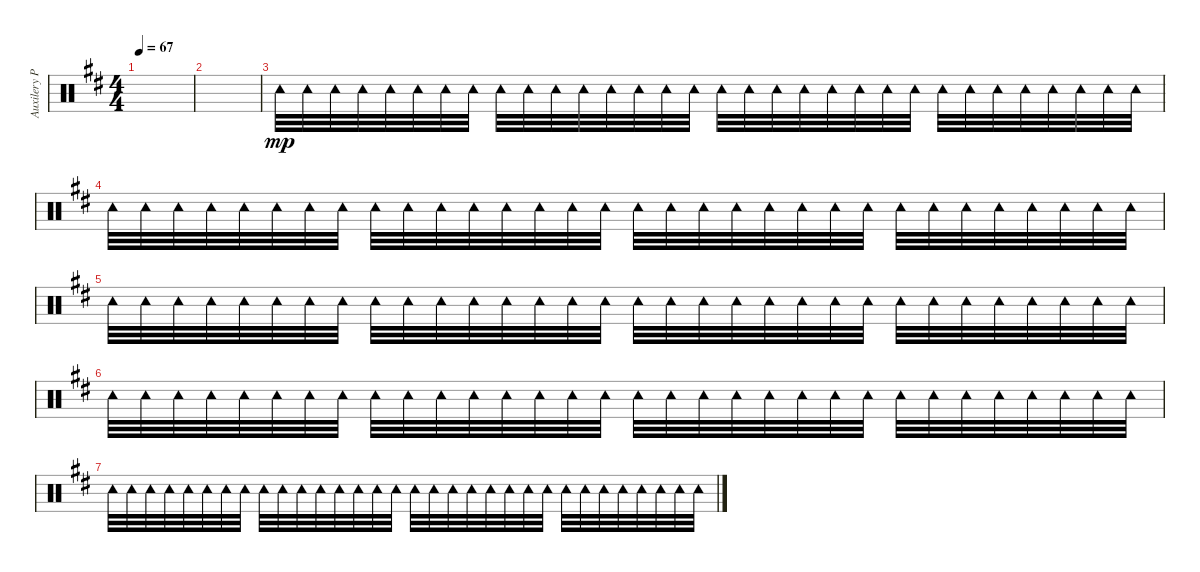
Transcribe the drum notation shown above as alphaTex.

\track ("Auxilery Percussion" "Auxilery P") {instrument percussion}
\staff {score}
\articulation defaults
\ts (4 4)
\tempo 67
\clef neutral
\ks bminor
|
|
"Tambourine (hit)".32{dy mp} "Tambourine (hit)".32 "Tambourine (hit)".32 "Tambourine (hit)".32 "Tambourine (hit)".32 "Tambourine (hit)".32 "Tambourine (hit)".32 "Tambourine (hit)".32 "Tambourine (hit)".32 "Tambourine (hit)".32 "Tambourine (hit)".32 "Tambourine (hit)".32 "Tambourine (hit)".32 "Tambourine (hit)".32 "Tambourine (hit)".32 "Tambourine (hit)".32 "Tambourine (hit)".32 "Tambourine (hit)".32 "Tambourine (hit)".32 "Tambourine (hit)".32 "Tambourine (hit)".32 "Tambourine (hit)".32 "Tambourine (hit)".32 "Tambourine (hit)".32 "Tambourine (hit)".32 "Tambourine (hit)".32 "Tambourine (hit)".32 "Tambourine (hit)".32 "Tambourine (hit)".32 "Tambourine (hit)".32 "Tambourine (hit)".32 "Tambourine (hit)".32 |
"Tambourine (hit)".32 "Tambourine (hit)".32 "Tambourine (hit)".32 "Tambourine (hit)".32 "Tambourine (hit)".32 "Tambourine (hit)".32 "Tambourine (hit)".32 "Tambourine (hit)".32 "Tambourine (hit)".32 "Tambourine (hit)".32 "Tambourine (hit)".32 "Tambourine (hit)".32 "Tambourine (hit)".32 "Tambourine (hit)".32 "Tambourine (hit)".32 "Tambourine (hit)".32 "Tambourine (hit)".32 "Tambourine (hit)".32 "Tambourine (hit)".32 "Tambourine (hit)".32 "Tambourine (hit)".32 "Tambourine (hit)".32 "Tambourine (hit)".32 "Tambourine (hit)".32 "Tambourine (hit)".32 "Tambourine (hit)".32 "Tambourine (hit)".32 "Tambourine (hit)".32 "Tambourine (hit)".32 "Tambourine (hit)".32 "Tambourine (hit)".32 "Tambourine (hit)".32 |
"Tambourine (hit)".32 "Tambourine (hit)".32 "Tambourine (hit)".32 "Tambourine (hit)".32 "Tambourine (hit)".32 "Tambourine (hit)".32 "Tambourine (hit)".32 "Tambourine (hit)".32 "Tambourine (hit)".32 "Tambourine (hit)".32 "Tambourine (hit)".32 "Tambourine (hit)".32 "Tambourine (hit)".32 "Tambourine (hit)".32 "Tambourine (hit)".32 "Tambourine (hit)".32 "Tambourine (hit)".32 "Tambourine (hit)".32 "Tambourine (hit)".32 "Tambourine (hit)".32 "Tambourine (hit)".32 "Tambourine (hit)".32 "Tambourine (hit)".32 "Tambourine (hit)".32 "Tambourine (hit)".32 "Tambourine (hit)".32 "Tambourine (hit)".32 "Tambourine (hit)".32 "Tambourine (hit)".32 "Tambourine (hit)".32 "Tambourine (hit)".32 "Tambourine (hit)".32 |
"Tambourine (hit)".32 "Tambourine (hit)".32 "Tambourine (hit)".32 "Tambourine (hit)".32 "Tambourine (hit)".32 "Tambourine (hit)".32 "Tambourine (hit)".32 "Tambourine (hit)".32 "Tambourine (hit)".32 "Tambourine (hit)".32 "Tambourine (hit)".32 "Tambourine (hit)".32 "Tambourine (hit)".32 "Tambourine (hit)".32 "Tambourine (hit)".32 "Tambourine (hit)".32 "Tambourine (hit)".32 "Tambourine (hit)".32 "Tambourine (hit)".32 "Tambourine (hit)".32 "Tambourine (hit)".32 "Tambourine (hit)".32 "Tambourine (hit)".32 "Tambourine (hit)".32 "Tambourine (hit)".32 "Tambourine (hit)".32 "Tambourine (hit)".32 "Tambourine (hit)".32 "Tambourine (hit)".32 "Tambourine (hit)".32 "Tambourine (hit)".32 "Tambourine (hit)".32 |
"Tambourine (hit)".32 "Tambourine (hit)".32 "Tambourine (hit)".32 "Tambourine (hit)".32 "Tambourine (hit)".32 "Tambourine (hit)".32 "Tambourine (hit)".32 "Tambourine (hit)".32 "Tambourine (hit)".32 "Tambourine (hit)".32 "Tambourine (hit)".32 "Tambourine (hit)".32 "Tambourine (hit)".32 "Tambourine (hit)".32 "Tambourine (hit)".32 "Tambourine (hit)".32 "Tambourine (hit)".32 "Tambourine (hit)".32 "Tambourine (hit)".32 "Tambourine (hit)".32 "Tambourine (hit)".32 "Tambourine (hit)".32 "Tambourine (hit)".32 "Tambourine (hit)".32 "Tambourine (hit)".32 "Tambourine (hit)".32 "Tambourine (hit)".32 "Tambourine (hit)".32 "Tambourine (hit)".32 "Tambourine (hit)".32 "Tambourine (hit)".32 "Tambourine (hit)".32
